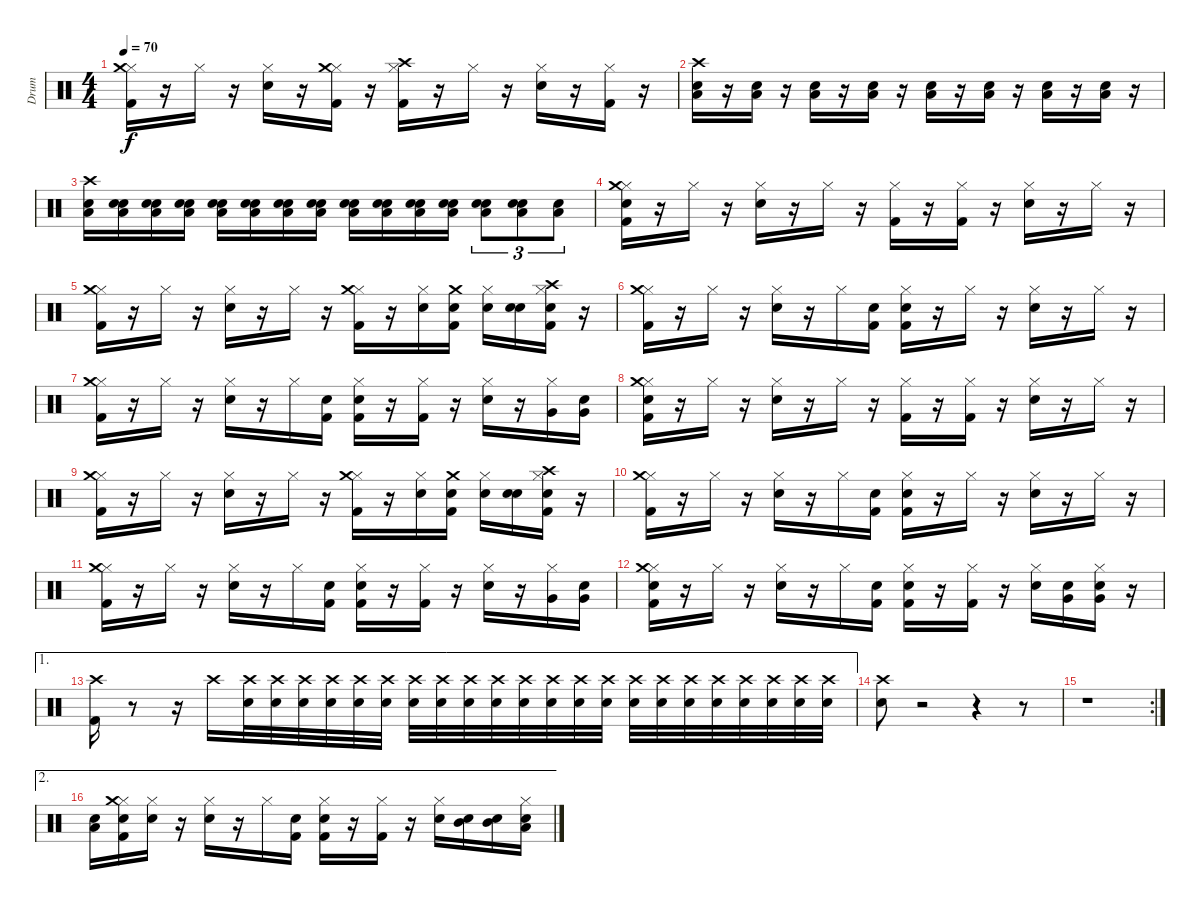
\track ("Drum" "Drum") {instrument percussion}
\staff {score}
\articulation defaults
\ts (4 4)
\tempo 70
\clef neutral
\ks c
("Kick (hit) 2" "Hi-Hat (closed)" "Crash medium (hit)").16{dy f} r.16 "Hi-Hat (closed)".16 r.16 ("Hi-Hat (closed)" "Snare (hit) 2").16 r.16 ("Kick (hit) 2" "Hi-Hat (closed)" "Crash medium (hit)").16 r.16 ("Kick (hit) 2" "Hi-Hat (closed)" "Crash high (hit)").16 r.16 "Hi-Hat (closed)".16 r.16 ("Hi-Hat (closed)" "Snare (hit) 2").16 r.16 ("Kick (hit) 2" "Hi-Hat (closed)").16 r.16 |
("Crash high (hit)" "Snare (hit) 2" "Low Tom (hit)").16 r.16 ("Snare (hit) 2" "Low Tom (hit)").16 r.16 ("Snare (hit) 2" "Low Tom (hit)").16 r.16 ("Snare (hit) 2" "Low Tom (hit)").16 r.16 ("Snare (hit) 2" "Low Tom (hit)").16 r.16 ("Snare (hit) 2" "Low Tom (hit)").16 r.16 ("Snare (hit) 2" "Low Tom (hit)").16 r.16 ("Snare (hit) 2" "Low Tom (hit)").16 r.16 |
("Crash high (hit)" "Snare (hit) 2" "Low Tom (hit)").16 ("Snare (hit)" "Snare (hit) 2" "Low Tom (hit)").16 ("Snare (hit)" "Snare (hit) 2" "Low Tom (hit)").16 ("Snare (hit)" "Snare (hit) 2" "Low Tom (hit)").16 ("Snare (hit)" "Snare (hit) 2" "Low Tom (hit)").16 ("Snare (hit)" "Snare (hit) 2" "Low Tom (hit)").16 ("Snare (hit)" "Snare (hit) 2" "Low Tom (hit)").16 ("Snare (hit)" "Snare (hit) 2" "Low Tom (hit)").16 ("Snare (hit)" "Snare (hit) 2" "Low Tom (hit)").16 ("Snare (hit)" "Snare (hit) 2" "Low Tom (hit)").16 ("Snare (hit)" "Snare (hit) 2" "Low Tom (hit)").16 ("Snare (hit)" "Snare (hit) 2" "Low Tom (hit)").16 ("Snare (hit)" "Snare (hit) 2" "Low Tom (hit)").8{tu (3 2)} ("Snare (hit)" "Snare (hit) 2" "Low Tom (hit)").8{tu (3 2)} ("Snare (hit) 2" "Low Tom (hit)").8{tu (3 2)} |
("Snare (hit)" "Kick (hit) 2" "Hi-Hat (closed)" "Crash medium (hit)").16 r.16 "Hi-Hat (closed)".16 r.16 ("Hi-Hat (closed)" "Snare (hit) 2").16 r.16 "Hi-Hat (closed)".16 r.16 ("Kick (hit) 2" "Hi-Hat (closed)").16 r.16 ("Kick (hit) 2" "Hi-Hat (closed)").16 r.16 ("Hi-Hat (closed)" "Snare (hit) 2").16 r.16 "Hi-Hat (closed)".16 r.16 |
("Kick (hit) 2" "Hi-Hat (closed)" "Crash medium (hit)").16 r.16 "Hi-Hat (closed)".16 r.16 ("Hi-Hat (closed)" "Snare (hit) 2").16 r.16 "Hi-Hat (closed)".16 r.16 ("Kick (hit) 2" "Hi-Hat (closed)" "Crash medium (hit)").16 r.16 ("Hi-Hat (closed)" "Snare (hit) 2").16 ("Snare (hit)" "Kick (hit) 2" "Crash medium (hit)").16 ("Snare (hit)" "Hi-Hat (closed)").16 ("Snare (hit)" "Snare (hit) 2").16 ("Snare (hit)" "Kick (hit) 2" "Hi-Hat (closed)" "Crash high (hit)").16 r.16 |
("Kick (hit) 2" "Hi-Hat (closed)" "Crash medium (hit)").16 r.16 "Hi-Hat (closed)".16 r.16 ("Hi-Hat (closed)" "Snare (hit) 2").16 r.16 "Hi-Hat (closed)".16 ("Snare (hit)" "Kick (hit) 2").16 ("Snare (hit)" "Kick (hit) 2" "Hi-Hat (closed)").16 r.16 "Hi-Hat (closed)".16 r.16 ("Hi-Hat (closed)" "Snare (hit) 2").16 r.16 "Hi-Hat (closed)".16 r.16 |
("Kick (hit) 2" "Hi-Hat (closed)" "Crash medium (hit)").16 r.16 "Hi-Hat (closed)".16 r.16 ("Hi-Hat (closed)" "Snare (hit) 2").16 r.16 "Hi-Hat (closed)".16 ("Snare (hit)" "Kick (hit) 2").16 ("Snare (hit)" "Kick (hit) 2" "Hi-Hat (closed)").16 r.16 ("Kick (hit) 2" "Hi-Hat (closed)").16 r.16 ("Hi-Hat (closed)" "Snare (hit) 2").16 r.16 ("Hi-Hat (closed)" "Very Low Tom (hit)").16 ("Snare (hit)" "Very Low Tom (hit)").16 |
("Snare (hit)" "Kick (hit) 2" "Hi-Hat (closed)" "Crash medium (hit)").16 r.16 "Hi-Hat (closed)".16 r.16 ("Hi-Hat (closed)" "Snare (hit) 2").16 r.16 "Hi-Hat (closed)".16 r.16 ("Kick (hit) 2" "Hi-Hat (closed)").16 r.16 ("Kick (hit) 2" "Hi-Hat (closed)").16 r.16 ("Hi-Hat (closed)" "Snare (hit) 2").16 r.16 "Hi-Hat (closed)".16 r.16 |
("Kick (hit) 2" "Hi-Hat (closed)" "Crash medium (hit)").16 r.16 "Hi-Hat (closed)".16 r.16 ("Hi-Hat (closed)" "Snare (hit) 2").16 r.16 "Hi-Hat (closed)".16 r.16 ("Kick (hit) 2" "Hi-Hat (closed)" "Crash medium (hit)").16 r.16 ("Hi-Hat (closed)" "Snare (hit) 2").16 ("Snare (hit)" "Kick (hit) 2" "Crash medium (hit)").16 ("Snare (hit)" "Hi-Hat (closed)").16 ("Snare (hit)" "Snare (hit) 2").16 ("Snare (hit)" "Kick (hit) 2" "Hi-Hat (closed)" "Crash high (hit)").16 r.16 |
("Kick (hit) 2" "Hi-Hat (closed)" "Crash medium (hit)").16 r.16 "Hi-Hat (closed)".16 r.16 ("Hi-Hat (closed)" "Snare (hit) 2").16 r.16 "Hi-Hat (closed)".16 ("Snare (hit)" "Kick (hit) 2").16 ("Snare (hit)" "Kick (hit) 2" "Hi-Hat (closed)").16 r.16 "Hi-Hat (closed)".16 r.16 ("Hi-Hat (closed)" "Snare (hit) 2").16 r.16 "Hi-Hat (closed)".16 r.16 |
("Kick (hit) 2" "Hi-Hat (closed)" "Crash medium (hit)").16 r.16 "Hi-Hat (closed)".16 r.16 ("Hi-Hat (closed)" "Snare (hit) 2").16 r.16 "Hi-Hat (closed)".16 ("Snare (hit)" "Kick (hit) 2").16 ("Snare (hit)" "Kick (hit) 2" "Hi-Hat (closed)").16 r.16 ("Kick (hit) 2" "Hi-Hat (closed)").16 r.16 ("Hi-Hat (closed)" "Snare (hit) 2").16 r.16 ("Hi-Hat (closed)" "Very Low Tom (hit)").16 ("Snare (hit)" "Very Low Tom (hit)").16 |
("Snare (hit)" "Kick (hit) 2" "Hi-Hat (closed)" "Crash medium (hit)").16 r.16 "Hi-Hat (closed)".16 r.16 ("Hi-Hat (closed)" "Snare (hit) 2").16 r.16 "Hi-Hat (closed)".16 ("Snare (hit)" "Kick (hit) 2").16 ("Snare (hit)" "Kick (hit) 2" "Hi-Hat (closed)").16 r.16 ("Kick (hit) 2" "Hi-Hat (closed)").16 r.16 ("Hi-Hat (closed)" "Snare (hit) 2").16 ("Snare (hit)" "Very Low Tom (hit)").16 ("Snare (hit)" "Hi-Hat (closed)" "Very Low Tom (hit)").16 r.16 |
\ae 1
("Kick (hit) 2" "Crash high (hit)").16 r.8 r.16 "Crash high (hit)".16 ("Snare (hit)" "Crash high (hit)").32 ("Snare (hit)" "Crash high (hit)").32 ("Snare (hit)" "Crash high (hit)").32 ("Snare (hit)" "Crash high (hit)").32 ("Snare (hit)" "Crash high (hit)").32 ("Snare (hit)" "Crash high (hit)").32 ("Snare (hit)" "Crash high (hit)").32 ("Snare (hit)" "Crash high (hit)").32 ("Snare (hit)" "Crash high (hit)").32 ("Snare (hit)" "Crash high (hit)").32 ("Snare (hit)" "Crash high (hit)").32 ("Snare (hit)" "Crash high (hit)").32 ("Snare (hit)" "Crash high (hit)").32 ("Snare (hit)" "Crash high (hit)").32 ("Snare (hit)" "Crash high (hit)").32 ("Snare (hit)" "Crash high (hit)").32 ("Snare (hit)" "Crash high (hit)").32 ("Snare (hit)" "Crash high (hit)").32 ("Snare (hit)" "Crash high (hit)").32 ("Snare (hit)" "Crash high (hit)").32 ("Snare (hit)" "Crash high (hit)").32 ("Snare (hit)" "Crash high (hit)").32 |
("Snare (hit)" "Crash high (hit)").8 r.2 r.4 r.8 |
\rc 2
r.1 |
\ae 2
("Snare (hit)" "Low Tom (hit)").16 ("Snare (hit)" "Kick (hit) 2" "Hi-Hat (closed)" "Crash medium (hit)").16 ("Snare (hit)" "Hi-Hat (closed)").16 r.16 ("Hi-Hat (closed)" "Snare (hit) 2").16 r.16 "Hi-Hat (closed)".16 ("Snare (hit)" "Kick (hit) 2").16 ("Snare (hit)" "Kick (hit) 2" "Hi-Hat (closed)").16 r.16 ("Kick (hit) 2" "Hi-Hat (closed)").16 r.16 ("Hi-Hat (closed)" "Snare (hit) 2").16 ("Snare (hit)" "Mid Tom (hit)").16 ("Snare (hit)" "Mid Tom (hit)").16 ("Snare (hit)" "Hi-Hat (closed)" "Low Tom (hit)").16
